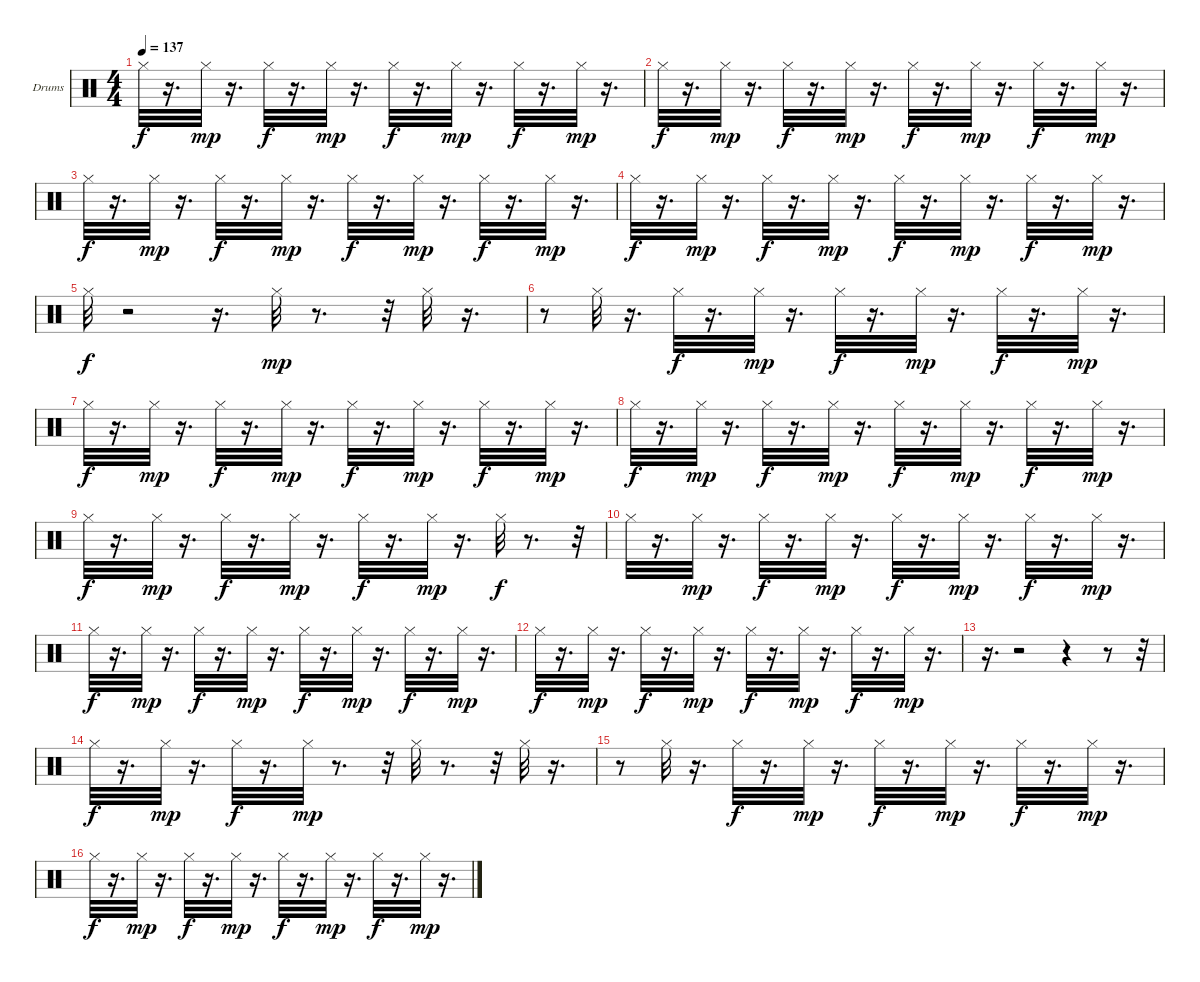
\bracketExtendMode groupsimilarinstruments
\firstSystemTrackNameOrientation horizontal
\otherSystemsTrackNameOrientation horizontal
\track ("Drumkit" "Drums") {instrument percussion}
\staff {score}
\articulation defaults
\ts (4 4)
\tempo 137
\clef neutral
\ks c "Hi-Hat (closed)".32{dy f}
r.16{d} "Hi-Hat (closed)".32{dy mp} r.16{d} "Hi-Hat (closed)".32{dy f} r.16{d} "Hi-Hat (closed)".32{dy mp} r.16{d} "Hi-Hat (closed)".32{dy f} r.16{d} "Hi-Hat (closed)".32{dy mp} r.16{d} "Hi-Hat (closed)".32{dy f} r.16{d} "Hi-Hat (closed)".32{dy mp} r.16{d} |
"Hi-Hat (closed)".32{dy f} r.16{d} "Hi-Hat (closed)".32{dy mp} r.16{d} "Hi-Hat (closed)".32{dy f} r.16{d} "Hi-Hat (closed)".32{dy mp} r.16{d} "Hi-Hat (closed)".32{dy f} r.16{d} "Hi-Hat (closed)".32{dy mp} r.16{d} "Hi-Hat (closed)".32{dy f} r.16{d} "Hi-Hat (closed)".32{dy mp} r.16{d} |
"Hi-Hat (closed)".32{dy f} r.16{d} "Hi-Hat (closed)".32{dy mp} r.16{d} "Hi-Hat (closed)".32{dy f} r.16{d} "Hi-Hat (closed)".32{dy mp} r.16{d} "Hi-Hat (closed)".32{dy f} r.16{d} "Hi-Hat (closed)".32{dy mp} r.16{d} "Hi-Hat (closed)".32{dy f} r.16{d} "Hi-Hat (closed)".32{dy mp} r.16{d} |
"Hi-Hat (closed)".32{dy f} r.16{d} "Hi-Hat (closed)".32{dy mp} r.16{d} "Hi-Hat (closed)".32{dy f} r.16{d} "Hi-Hat (closed)".32{dy mp} r.16{d} "Hi-Hat (closed)".32{dy f} r.16{d} "Hi-Hat (closed)".32{dy mp} r.16{d} "Hi-Hat (closed)".32{dy f} r.16{d} "Hi-Hat (closed)".32{dy mp} r.16{d} |
"Hi-Hat (closed)".32{dy f} r.2 r.16{d} "Hi-Hat (closed)".32{dy mp} r.8{d} r.32 "Hi-Hat (closed)".32 r.16{d} |
r.8 "Hi-Hat (closed)".32 r.16{d} "Hi-Hat (closed)".32{dy f} r.16{d} "Hi-Hat (closed)".32{dy mp} r.16{d} "Hi-Hat (closed)".32{dy f} r.16{d} "Hi-Hat (closed)".32{dy mp} r.16{d} "Hi-Hat (closed)".32{dy f} r.16{d} "Hi-Hat (closed)".32{dy mp} r.16{d} |
"Hi-Hat (closed)".32{dy f} r.16{d} "Hi-Hat (closed)".32{dy mp} r.16{d} "Hi-Hat (closed)".32{dy f} r.16{d} "Hi-Hat (closed)".32{dy mp} r.16{d} "Hi-Hat (closed)".32{dy f} r.16{d} "Hi-Hat (closed)".32{dy mp} r.16{d} "Hi-Hat (closed)".32{dy f} r.16{d} "Hi-Hat (closed)".32{dy mp} r.16{d} |
"Hi-Hat (closed)".32{dy f} r.16{d} "Hi-Hat (closed)".32{dy mp} r.16{d} "Hi-Hat (closed)".32{dy f} r.16{d} "Hi-Hat (closed)".32{dy mp} r.16{d} "Hi-Hat (closed)".32{dy f} r.16{d} "Hi-Hat (closed)".32{dy mp} r.16{d} "Hi-Hat (closed)".32{dy f} r.16{d} "Hi-Hat (closed)".32{dy mp} r.16{d} |
"Hi-Hat (closed)".32{dy f} r.16{d} "Hi-Hat (closed)".32{dy mp} r.16{d} "Hi-Hat (closed)".32{dy f} r.16{d} "Hi-Hat (closed)".32{dy mp} r.16{d} "Hi-Hat (closed)".32{dy f} r.16{d} "Hi-Hat (closed)".32{dy mp} r.16{d} "Hi-Hat (closed)".32{dy f} r.8{d} r.32 |
"Hi-Hat (closed)".32 r.16{d} "Hi-Hat (closed)".32{dy mp} r.16{d} "Hi-Hat (closed)".32{dy f} r.16{d} "Hi-Hat (closed)".32{dy mp} r.16{d} "Hi-Hat (closed)".32{dy f} r.16{d} "Hi-Hat (closed)".32{dy mp} r.16{d} "Hi-Hat (closed)".32{dy f} r.16{d} "Hi-Hat (closed)".32{dy mp} r.16{d} |
"Hi-Hat (closed)".32{dy f} r.16{d} "Hi-Hat (closed)".32{dy mp} r.16{d} "Hi-Hat (closed)".32{dy f} r.16{d} "Hi-Hat (closed)".32{dy mp} r.16{d} "Hi-Hat (closed)".32{dy f} r.16{d} "Hi-Hat (closed)".32{dy mp} r.16{d} "Hi-Hat (closed)".32{dy f} r.16{d} "Hi-Hat (closed)".32{dy mp} r.16{d} |
"Hi-Hat (closed)".32{dy f} r.16{d} "Hi-Hat (closed)".32{dy mp} r.16{d} "Hi-Hat (closed)".32{dy f} r.16{d} "Hi-Hat (closed)".32{dy mp} r.16{d} "Hi-Hat (closed)".32{dy f} r.16{d} "Hi-Hat (closed)".32{dy mp} r.16{d} "Hi-Hat (closed)".32{dy f} r.16{d} "Hi-Hat (closed)".32{dy mp} r.16{d} |
r.16{d} r.2 r.4 r.8 r.32 |
"Hi-Hat (closed)".32{dy f} r.16{d} "Hi-Hat (closed)".32{dy mp} r.16{d} "Hi-Hat (closed)".32{dy f} r.16{d} "Hi-Hat (closed)".32{dy mp} r.8{d} r.32 "Hi-Hat (closed)".32 r.8{d} r.32 "Hi-Hat (closed)".32 r.16{d} |
r.8 "Hi-Hat (closed)".32 r.16{d} "Hi-Hat (closed)".32{dy f} r.16{d} "Hi-Hat (closed)".32{dy mp} r.16{d} "Hi-Hat (closed)".32{dy f} r.16{d} "Hi-Hat (closed)".32{dy mp} r.16{d} "Hi-Hat (closed)".32{dy f} r.16{d} "Hi-Hat (closed)".32{dy mp} r.16{d} |
"Hi-Hat (closed)".32{dy f} r.16{d} "Hi-Hat (closed)".32{dy mp} r.16{d} "Hi-Hat (closed)".32{dy f} r.16{d} "Hi-Hat (closed)".32{dy mp} r.16{d} "Hi-Hat (closed)".32{dy f} r.16{d} "Hi-Hat (closed)".32{dy mp} r.16{d} "Hi-Hat (closed)".32{dy f} r.16{d} "Hi-Hat (closed)".32{dy mp} r.16{d}
